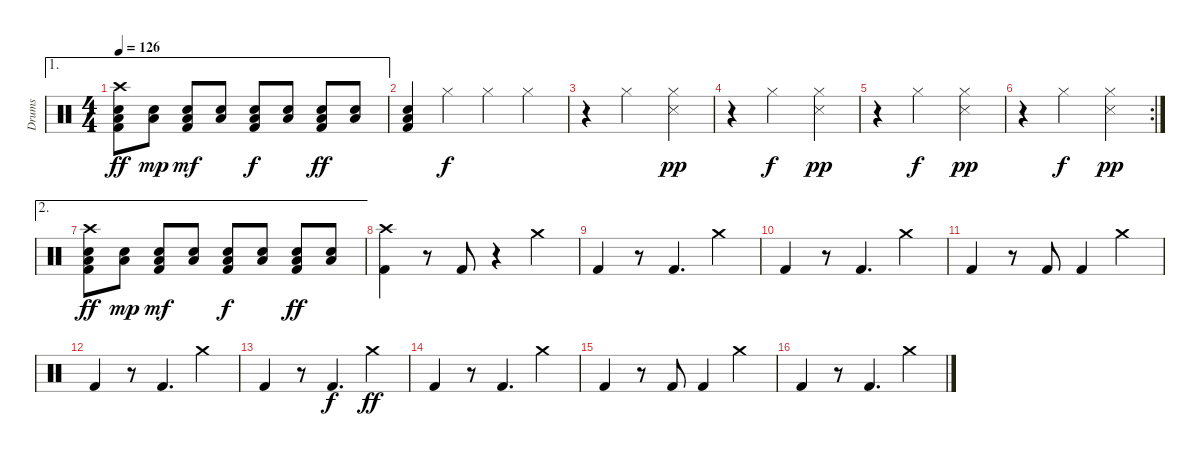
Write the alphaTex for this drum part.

\track ("Drums" "Drums") {instrument percussion}
\staff {score}
\articulation defaults
\ae 1
\ts (4 4)
\tempo 126
\clef neutral
\ks c
("Low Floor Tom (hit)" "Snare (hit) 2" "Kick (hit) 2" "Crash high (hit)").8{dy ff} ("Low Floor Tom (hit)" "Snare (hit) 2").8{dy mp} ("Low Floor Tom (hit)" "Snare (hit) 2" "Kick (hit) 2").8{dy mf} ("Low Floor Tom (hit)" "Snare (hit) 2").8 ("Low Floor Tom (hit)" "Snare (hit) 2" "Kick (hit) 2").8{dy f} ("Low Floor Tom (hit)" "Snare (hit) 2").8 ("Low Floor Tom (hit)" "Snare (hit) 2" "Kick (hit) 2").8{dy ff} ("Low Floor Tom (hit)" "Snare (hit) 2").8 |
("Low Floor Tom (hit)" "Snare (hit) 2" "Kick (hit) 2").4 "Hi-Hat (closed)".4{dy f} "Hi-Hat (closed)".4 "Hi-Hat (closed)".4 |
r.4 "Hi-Hat (closed)".2 ("Hi-Hat (closed)" "Snare (side stick) 3").4{dy pp} |
r.4 "Hi-Hat (closed)".2{dy f} ("Hi-Hat (closed)" "Snare (side stick) 3").4{dy pp} |
r.4 "Hi-Hat (closed)".2{dy f} ("Hi-Hat (closed)" "Snare (side stick) 3").4{dy pp} |
\rc 2
r.4 "Hi-Hat (closed)".2{dy f} ("Hi-Hat (closed)" "Snare (side stick) 3").4{dy pp} |
\ae 2
("Low Floor Tom (hit)" "Snare (hit) 2" "Kick (hit) 2" "Crash high (hit)").8{dy ff} ("Low Floor Tom (hit)" "Snare (hit) 2").8{dy mp} ("Low Floor Tom (hit)" "Snare (hit) 2" "Kick (hit) 2").8{dy mf} ("Low Floor Tom (hit)" "Snare (hit) 2").8 ("Low Floor Tom (hit)" "Snare (hit) 2" "Kick (hit) 2").8{dy f} ("Low Floor Tom (hit)" "Snare (hit) 2").8 ("Low Floor Tom (hit)" "Snare (hit) 2" "Kick (hit) 2").8{dy ff} ("Low Floor Tom (hit)" "Snare (hit) 2").8 |
("Crash high (hit)" "Kick (hit) 2").4 r.8 "Kick (hit) 2".8 r.4 "Crash medium (hit)".4 |
"Kick (hit) 2".4 r.8 "Kick (hit) 2".4{d} "Crash medium (hit)".4 |
"Kick (hit) 2".4 r.8 "Kick (hit) 2".4{d} "Crash medium (hit)".4 |
"Kick (hit) 2".4 r.8 "Kick (hit) 2".8 "Kick (hit) 2".4 "Crash medium (hit)".4 |
"Kick (hit) 2".4 r.8 "Kick (hit) 2".4{d} "Crash medium (hit)".4 |
"Kick (hit) 2".4 r.8 "Kick (hit) 2".4{d dy f} "Crash medium (hit)".4{dy ff} |
"Kick (hit) 2".4 r.8 "Kick (hit) 2".4{d} "Crash medium (hit)".4 |
"Kick (hit) 2".4 r.8 "Kick (hit) 2".8 "Kick (hit) 2".4 "Crash medium (hit)".4 |
"Kick (hit) 2".4 r.8 "Kick (hit) 2".4{d} "Crash medium (hit)".4
